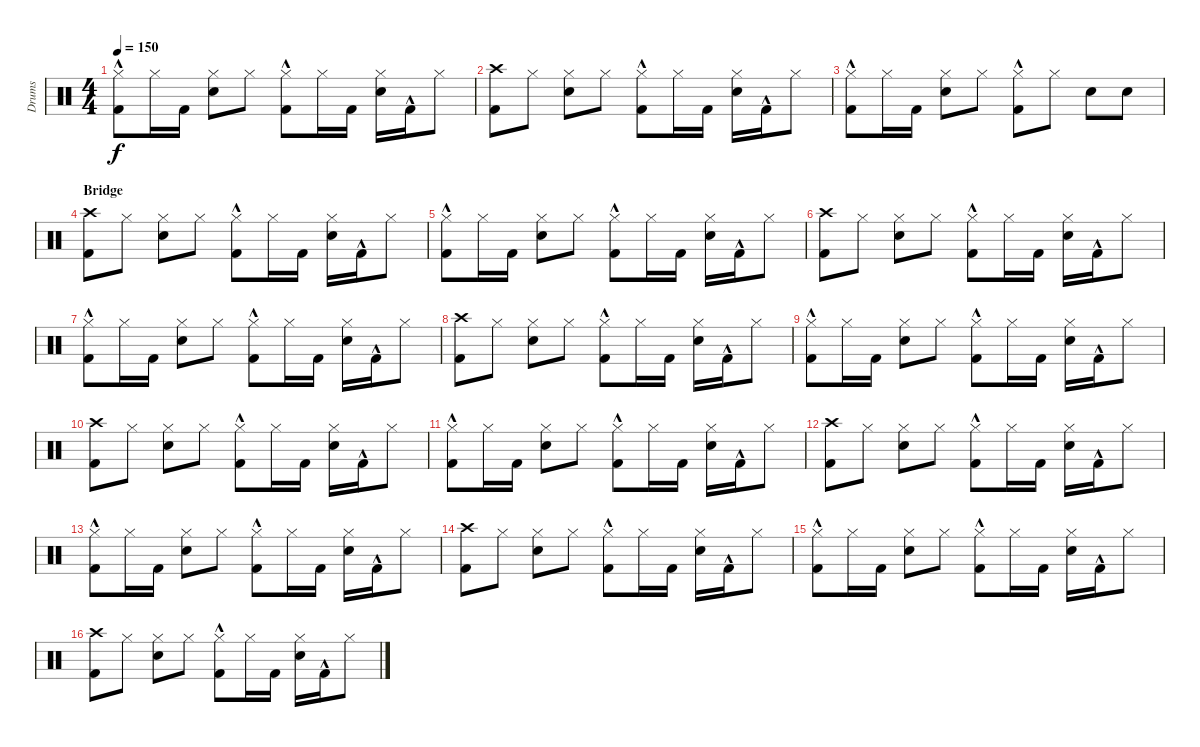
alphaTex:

\track ("Drums" "Drums") {instrument percussion}
\staff {score}
\articulation defaults
\ts (4 4)
\tempo 150
\clef neutral
\ks c
("Hi-Hat (closed)" "Kick (hit) 2"{hac}).8{dy f} "Hi-Hat (closed)".16 "Kick (hit) 2".16 ("Hi-Hat (closed)" "Electric Snare (hit)").8 "Hi-Hat (closed)".8 ("Hi-Hat (closed)" "Kick (hit) 2"{hac}).8 "Hi-Hat (closed)".16 "Kick (hit) 2".16 ("Hi-Hat (closed)" "Electric Snare (hit)").16 "Kick (hit) 2"{hac}.16 "Hi-Hat (closed)".8 |
("Crash high (hit)" "Kick (hit) 2").8 "Hi-Hat (closed)".8 ("Hi-Hat (closed)" "Electric Snare (hit)").8 "Hi-Hat (closed)".8 ("Hi-Hat (closed)" "Kick (hit) 2"{hac}).8 "Hi-Hat (closed)".16 "Kick (hit) 2".16 ("Hi-Hat (closed)" "Electric Snare (hit)").16 "Kick (hit) 2"{hac}.16 "Hi-Hat (closed)".8 |
("Hi-Hat (closed)" "Kick (hit) 2"{hac}).8 "Hi-Hat (closed)".16 "Kick (hit) 2".16 ("Hi-Hat (closed)" "Electric Snare (hit)").8 "Hi-Hat (closed)".8 ("Hi-Hat (closed)" "Kick (hit) 2"{hac}).8 "Hi-Hat (closed)".8 "Electric Snare (hit)".8 "Electric Snare (hit)".8 |
\section ("" "Bridge")
("Crash high (hit)" "Kick (hit) 2").8 "Hi-Hat (closed)".8 ("Hi-Hat (closed)" "Electric Snare (hit)").8 "Hi-Hat (closed)".8 ("Hi-Hat (closed)" "Kick (hit) 2"{hac}).8 "Hi-Hat (closed)".16 "Kick (hit) 2".16 ("Hi-Hat (closed)" "Electric Snare (hit)").16 "Kick (hit) 2"{hac}.16 "Hi-Hat (closed)".8 |
("Hi-Hat (closed)" "Kick (hit) 2"{hac}).8 "Hi-Hat (closed)".16 "Kick (hit) 2".16 ("Hi-Hat (closed)" "Electric Snare (hit)").8 "Hi-Hat (closed)".8 ("Hi-Hat (closed)" "Kick (hit) 2"{hac}).8 "Hi-Hat (closed)".16 "Kick (hit) 2".16 ("Hi-Hat (closed)" "Electric Snare (hit)").16 "Kick (hit) 2"{hac}.16 "Hi-Hat (closed)".8 |
("Crash high (hit)" "Kick (hit) 2").8 "Hi-Hat (closed)".8 ("Hi-Hat (closed)" "Electric Snare (hit)").8 "Hi-Hat (closed)".8 ("Hi-Hat (closed)" "Kick (hit) 2"{hac}).8 "Hi-Hat (closed)".16 "Kick (hit) 2".16 ("Hi-Hat (closed)" "Electric Snare (hit)").16 "Kick (hit) 2"{hac}.16 "Hi-Hat (closed)".8 |
("Hi-Hat (closed)" "Kick (hit) 2"{hac}).8 "Hi-Hat (closed)".16 "Kick (hit) 2".16 ("Hi-Hat (closed)" "Electric Snare (hit)").8 "Hi-Hat (closed)".8 ("Hi-Hat (closed)" "Kick (hit) 2"{hac}).8 "Hi-Hat (closed)".16 "Kick (hit) 2".16 ("Hi-Hat (closed)" "Electric Snare (hit)").16 "Kick (hit) 2"{hac}.16 "Hi-Hat (closed)".8 |
("Crash high (hit)" "Kick (hit) 2").8 "Hi-Hat (closed)".8 ("Hi-Hat (closed)" "Electric Snare (hit)").8 "Hi-Hat (closed)".8 ("Hi-Hat (closed)" "Kick (hit) 2"{hac}).8 "Hi-Hat (closed)".16 "Kick (hit) 2".16 ("Hi-Hat (closed)" "Electric Snare (hit)").16 "Kick (hit) 2"{hac}.16 "Hi-Hat (closed)".8 |
("Hi-Hat (closed)" "Kick (hit) 2"{hac}).8 "Hi-Hat (closed)".16 "Kick (hit) 2".16 ("Hi-Hat (closed)" "Electric Snare (hit)").8 "Hi-Hat (closed)".8 ("Hi-Hat (closed)" "Kick (hit) 2"{hac}).8 "Hi-Hat (closed)".16 "Kick (hit) 2".16 ("Hi-Hat (closed)" "Electric Snare (hit)").16 "Kick (hit) 2"{hac}.16 "Hi-Hat (closed)".8 |
("Crash high (hit)" "Kick (hit) 2").8 "Hi-Hat (closed)".8 ("Hi-Hat (closed)" "Electric Snare (hit)").8 "Hi-Hat (closed)".8 ("Hi-Hat (closed)" "Kick (hit) 2"{hac}).8 "Hi-Hat (closed)".16 "Kick (hit) 2".16 ("Hi-Hat (closed)" "Electric Snare (hit)").16 "Kick (hit) 2"{hac}.16 "Hi-Hat (closed)".8 |
("Hi-Hat (closed)" "Kick (hit) 2"{hac}).8 "Hi-Hat (closed)".16 "Kick (hit) 2".16 ("Hi-Hat (closed)" "Electric Snare (hit)").8 "Hi-Hat (closed)".8 ("Hi-Hat (closed)" "Kick (hit) 2"{hac}).8 "Hi-Hat (closed)".16 "Kick (hit) 2".16 ("Hi-Hat (closed)" "Electric Snare (hit)").16 "Kick (hit) 2"{hac}.16 "Hi-Hat (closed)".8 |
("Crash high (hit)" "Kick (hit) 2").8 "Hi-Hat (closed)".8 ("Hi-Hat (closed)" "Electric Snare (hit)").8 "Hi-Hat (closed)".8 ("Hi-Hat (closed)" "Kick (hit) 2"{hac}).8 "Hi-Hat (closed)".16 "Kick (hit) 2".16 ("Hi-Hat (closed)" "Electric Snare (hit)").16 "Kick (hit) 2"{hac}.16 "Hi-Hat (closed)".8 |
("Hi-Hat (closed)" "Kick (hit) 2"{hac}).8 "Hi-Hat (closed)".16 "Kick (hit) 2".16 ("Hi-Hat (closed)" "Electric Snare (hit)").8 "Hi-Hat (closed)".8 ("Hi-Hat (closed)" "Kick (hit) 2"{hac}).8 "Hi-Hat (closed)".16 "Kick (hit) 2".16 ("Hi-Hat (closed)" "Electric Snare (hit)").16 "Kick (hit) 2"{hac}.16 "Hi-Hat (closed)".8 |
("Crash high (hit)" "Kick (hit) 2").8 "Hi-Hat (closed)".8 ("Hi-Hat (closed)" "Electric Snare (hit)").8 "Hi-Hat (closed)".8 ("Hi-Hat (closed)" "Kick (hit) 2"{hac}).8 "Hi-Hat (closed)".16 "Kick (hit) 2".16 ("Hi-Hat (closed)" "Electric Snare (hit)").16 "Kick (hit) 2"{hac}.16 "Hi-Hat (closed)".8 |
("Hi-Hat (closed)" "Kick (hit) 2"{hac}).8 "Hi-Hat (closed)".16 "Kick (hit) 2".16 ("Hi-Hat (closed)" "Electric Snare (hit)").8 "Hi-Hat (closed)".8 ("Hi-Hat (closed)" "Kick (hit) 2"{hac}).8 "Hi-Hat (closed)".16 "Kick (hit) 2".16 ("Hi-Hat (closed)" "Electric Snare (hit)").16 "Kick (hit) 2"{hac}.16 "Hi-Hat (closed)".8 |
("Crash high (hit)" "Kick (hit) 2").8 "Hi-Hat (closed)".8 ("Hi-Hat (closed)" "Electric Snare (hit)").8 "Hi-Hat (closed)".8 ("Hi-Hat (closed)" "Kick (hit) 2"{hac}).8 "Hi-Hat (closed)".16 "Kick (hit) 2".16 ("Hi-Hat (closed)" "Electric Snare (hit)").16 "Kick (hit) 2"{hac}.16 "Hi-Hat (closed)".8
